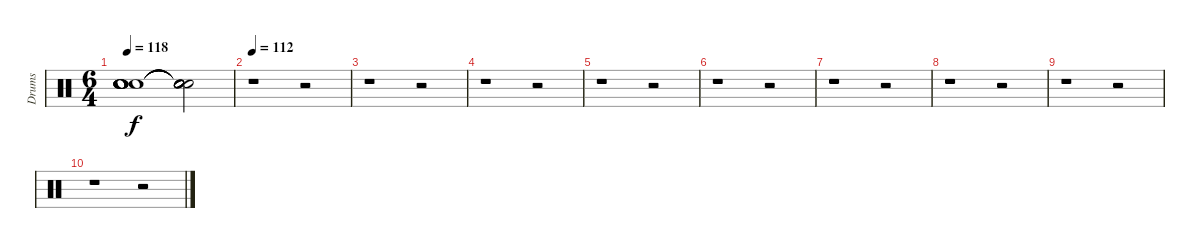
\track ("Drums" "Drums") {instrument percussion}
\staff {score}
\articulation defaults
\ts (6 4)
\tempo 118
\clef neutral
\ks c
("Snare (hit)"{t} "Snare (hit)"{t} "Snare (hit)"{t} "Snare (hit)"{t} "Snare (hit)"{t} "Snare (hit)"{t}).1{dy f} ("Snare (hit)"{t} "Snare (hit)"{t} "Snare (hit)"{t} "Snare (hit)"{t} "Snare (hit)"{t} "Snare (hit)"{t}).2 |
\tempo 112
r.1 r.2 |
r.1 r.2 |
r.1 r.2 |
r.1 r.2 |
r.1 r.2 |
r.1 r.2 |
r.1 r.2 |
r.1 r.2 |
r.1 r.2
